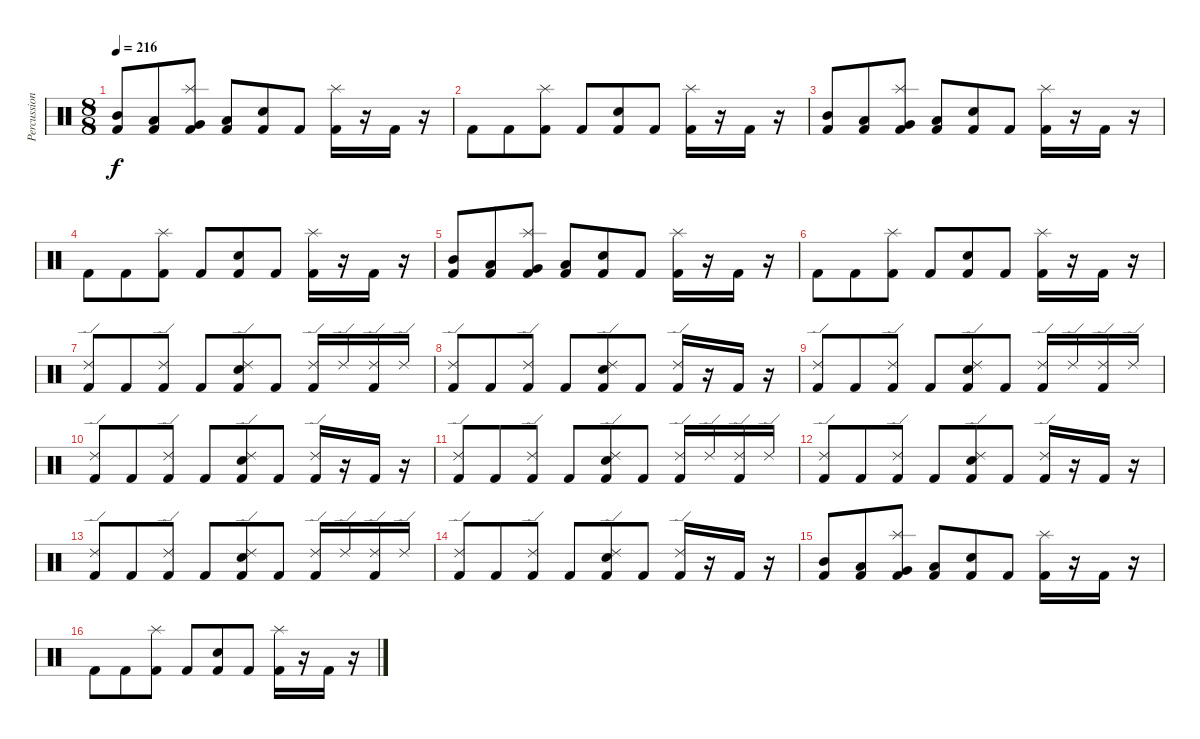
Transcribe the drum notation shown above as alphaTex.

\track ("Percussions" "Percussion") {instrument percussion}
\staff {score}
\articulation defaults
\ts (8 8)
\tempo 216
\clef neutral
\ks c
("Mid Tom (hit)" "Kick (hit) 2").8{dy f} ("Low Tom (hit)" "Kick (hit) 2").8 ("Splash (hit)" "Very Low Tom (hit)" "Kick (hit) 2").8 ("Low Floor Tom (hit)" "Kick (hit) 2").8 ("Electric Snare (hit)" "Kick (hit) 2").8 "Kick (hit) 2".8 ("Splash (hit)" "Kick (hit) 2").16 r.16 "Kick (hit) 2".16 r.16 |
"Kick (hit) 2".8 "Kick (hit) 2".8 ("Splash (hit)" "Kick (hit) 2").8 "Kick (hit) 2".8 ("Electric Snare (hit)" "Kick (hit) 2").8 "Kick (hit) 2".8 ("Splash (hit)" "Kick (hit) 2").16 r.16 "Kick (hit) 2".16 r.16 |
("Mid Tom (hit)" "Kick (hit) 2").8 ("Low Tom (hit)" "Kick (hit) 2").8 ("Splash (hit)" "Very Low Tom (hit)" "Kick (hit) 2").8 ("Low Floor Tom (hit)" "Kick (hit) 2").8 ("Electric Snare (hit)" "Kick (hit) 2").8 "Kick (hit) 2".8 ("Splash (hit)" "Kick (hit) 2").16 r.16 "Kick (hit) 2".16 r.16 |
"Kick (hit) 2".8 "Kick (hit) 2".8 ("Splash (hit)" "Kick (hit) 2").8 "Kick (hit) 2".8 ("Electric Snare (hit)" "Kick (hit) 2").8 "Kick (hit) 2".8 ("Splash (hit)" "Kick (hit) 2").16 r.16 "Kick (hit) 2".16 r.16 |
("Mid Tom (hit)" "Kick (hit) 2").8 ("Low Tom (hit)" "Kick (hit) 2").8 ("Splash (hit)" "Very Low Tom (hit)" "Kick (hit) 2").8 ("Low Floor Tom (hit)" "Kick (hit) 2").8 ("Electric Snare (hit)" "Kick (hit) 2").8 "Kick (hit) 2".8 ("Splash (hit)" "Kick (hit) 2").16 r.16 "Kick (hit) 2".16 r.16 |
"Kick (hit) 2".8 "Kick (hit) 2".8 ("Splash (hit)" "Kick (hit) 2").8 "Kick (hit) 2".8 ("Electric Snare (hit)" "Kick (hit) 2").8 "Kick (hit) 2".8 ("Splash (hit)" "Kick (hit) 2").16 r.16 "Kick (hit) 2".16 r.16 |
("Ride (edge) 2" "Kick (hit) 2").8 "Kick (hit) 2".8 ("Ride (edge) 2" "Kick (hit) 2").8 "Kick (hit) 2".8 ("Ride (edge) 2" "Electric Snare (hit)" "Kick (hit) 2").8 "Kick (hit) 2".8 ("Ride (edge) 2" "Kick (hit) 2").16 "Ride (edge) 2".16 ("Ride (edge) 2" "Kick (hit) 2").16 "Ride (edge) 2".16 |
("Ride (edge) 2" "Kick (hit) 2").8 "Kick (hit) 2".8 ("Ride (edge) 2" "Kick (hit) 2").8 "Kick (hit) 2".8 ("Ride (edge) 2" "Electric Snare (hit)" "Kick (hit) 2").8 "Kick (hit) 2".8 ("Ride (edge) 2" "Kick (hit) 2").16 r.16 "Kick (hit) 2".16 r.16 |
("Ride (edge) 2" "Kick (hit) 2").8 "Kick (hit) 2".8 ("Ride (edge) 2" "Kick (hit) 2").8 "Kick (hit) 2".8 ("Ride (edge) 2" "Electric Snare (hit)" "Kick (hit) 2").8 "Kick (hit) 2".8 ("Ride (edge) 2" "Kick (hit) 2").16 "Ride (edge) 2".16 ("Ride (edge) 2" "Kick (hit) 2").16 "Ride (edge) 2".16 |
("Ride (edge) 2" "Kick (hit) 2").8 "Kick (hit) 2".8 ("Ride (edge) 2" "Kick (hit) 2").8 "Kick (hit) 2".8 ("Ride (edge) 2" "Electric Snare (hit)" "Kick (hit) 2").8 "Kick (hit) 2".8 ("Ride (edge) 2" "Kick (hit) 2").16 r.16 "Kick (hit) 2".16 r.16 |
("Ride (edge) 2" "Kick (hit) 2").8 "Kick (hit) 2".8 ("Ride (edge) 2" "Kick (hit) 2").8 "Kick (hit) 2".8 ("Ride (edge) 2" "Electric Snare (hit)" "Kick (hit) 2").8 "Kick (hit) 2".8 ("Ride (edge) 2" "Kick (hit) 2").16 "Ride (edge) 2".16 ("Ride (edge) 2" "Kick (hit) 2").16 "Ride (edge) 2".16 |
("Ride (edge) 2" "Kick (hit) 2").8 "Kick (hit) 2".8 ("Ride (edge) 2" "Kick (hit) 2").8 "Kick (hit) 2".8 ("Ride (edge) 2" "Electric Snare (hit)" "Kick (hit) 2").8 "Kick (hit) 2".8 ("Ride (edge) 2" "Kick (hit) 2").16 r.16 "Kick (hit) 2".16 r.16 |
("Ride (edge) 2" "Kick (hit) 2").8 "Kick (hit) 2".8 ("Ride (edge) 2" "Kick (hit) 2").8 "Kick (hit) 2".8 ("Ride (edge) 2" "Electric Snare (hit)" "Kick (hit) 2").8 "Kick (hit) 2".8 ("Ride (edge) 2" "Kick (hit) 2").16 "Ride (edge) 2".16 ("Ride (edge) 2" "Kick (hit) 2").16 "Ride (edge) 2".16 |
("Ride (edge) 2" "Kick (hit) 2").8 "Kick (hit) 2".8 ("Ride (edge) 2" "Kick (hit) 2").8 "Kick (hit) 2".8 ("Ride (edge) 2" "Electric Snare (hit)" "Kick (hit) 2").8 "Kick (hit) 2".8 ("Ride (edge) 2" "Kick (hit) 2").16 r.16 "Kick (hit) 2".16 r.16 |
("Mid Tom (hit)" "Kick (hit) 2").8 ("Low Tom (hit)" "Kick (hit) 2").8 ("Splash (hit)" "Very Low Tom (hit)" "Kick (hit) 2").8 ("Low Floor Tom (hit)" "Kick (hit) 2").8 ("Electric Snare (hit)" "Kick (hit) 2").8 "Kick (hit) 2".8 ("Splash (hit)" "Kick (hit) 2").16 r.16 "Kick (hit) 2".16 r.16 |
"Kick (hit) 2".8 "Kick (hit) 2".8 ("Splash (hit)" "Kick (hit) 2").8 "Kick (hit) 2".8 ("Electric Snare (hit)" "Kick (hit) 2").8 "Kick (hit) 2".8 ("Splash (hit)" "Kick (hit) 2").16 r.16 "Kick (hit) 2".16 r.16
